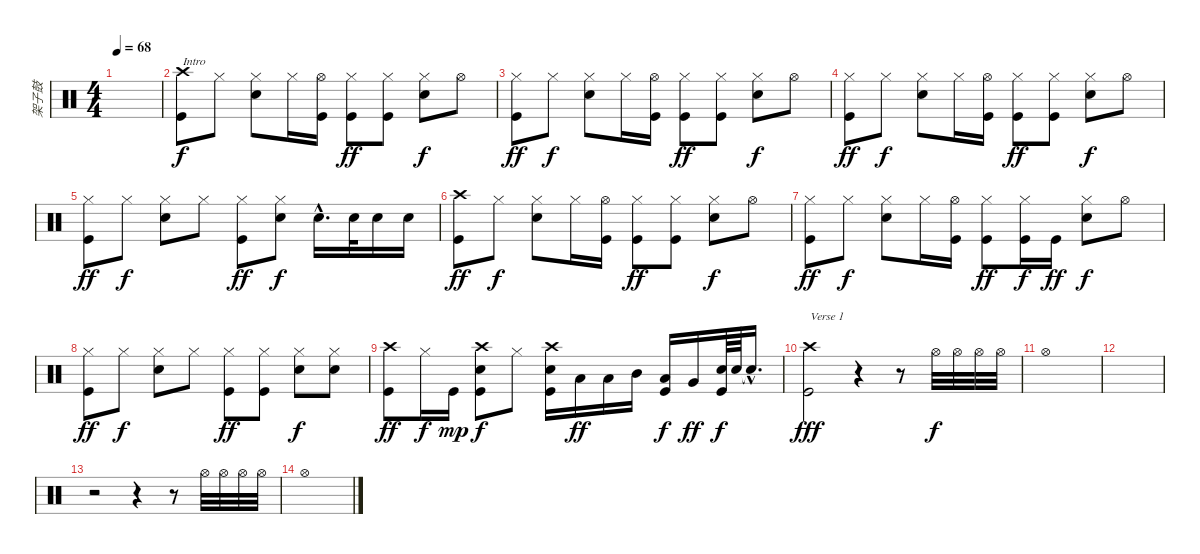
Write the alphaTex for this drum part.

\track ("架子鼓" "架子鼓") {instrument percussion}
\staff {score}
\articulation defaults
\ts (4 4)
\tempo 68
\clef neutral
\ks c
|
("Crash high (hit)" "Kick (hit)").8{txt "Intro"} "Hi-Hat (closed)".8{dy f} ("Hi-Hat (closed)" "Snare (hit) 2").8 "Hi-Hat (closed)".16 ("Hi-Hat (open)" "Kick (hit)").16 ("Hi-Hat (closed)" "Kick (hit)").8{dy ff} ("Hi-Hat (closed)" "Kick (hit)").8 ("Hi-Hat (closed)" "Snare (hit) 2").8{dy f} "Hi-Hat (open)".8 |
("Hi-Hat (closed)" "Kick (hit)").8{dy ff} "Hi-Hat (closed)".8{dy f} ("Hi-Hat (closed)" "Snare (hit) 2").8 "Hi-Hat (closed)".16 ("Hi-Hat (open)" "Kick (hit)").16 ("Hi-Hat (closed)" "Kick (hit)").8{dy ff} ("Hi-Hat (closed)" "Kick (hit)").8 ("Hi-Hat (closed)" "Snare (hit) 2").8{dy f} "Hi-Hat (open)".8 |
("Hi-Hat (closed)" "Kick (hit)").8{dy ff} "Hi-Hat (closed)".8{dy f} ("Hi-Hat (closed)" "Snare (hit) 2").8 "Hi-Hat (closed)".16 ("Hi-Hat (open)" "Kick (hit)").16 ("Hi-Hat (closed)" "Kick (hit)").8{dy ff} ("Hi-Hat (closed)" "Kick (hit)").8 ("Hi-Hat (closed)" "Snare (hit) 2").8{dy f} "Hi-Hat (open)".8 |
("Hi-Hat (closed)" "Kick (hit)").8{dy ff} "Hi-Hat (closed)".8{dy f} ("Hi-Hat (closed)" "Snare (hit) 2").8 "Hi-Hat (closed)".8 ("Hi-Hat (closed)" "Kick (hit)").8{dy ff} ("Hi-Hat (closed)" "Snare (hit) 2").8{dy f} "Snare (hit) 2"{hac}.16{d} "Snare (hit) 2".32 "Snare (hit) 2".16 "Snare (hit) 2".16 |
("Crash high (hit)" "Kick (hit)").8{dy ff} "Hi-Hat (closed)".8{dy f} ("Hi-Hat (closed)" "Snare (hit) 2").8 "Hi-Hat (closed)".16 ("Hi-Hat (open)" "Kick (hit)").16 ("Hi-Hat (closed)" "Kick (hit)").8{dy ff} ("Hi-Hat (closed)" "Kick (hit)").8 ("Hi-Hat (closed)" "Snare (hit) 2").8{dy f} "Hi-Hat (open)".8 |
("Hi-Hat (closed)" "Kick (hit)").8{dy ff} "Hi-Hat (closed)".8{dy f} ("Hi-Hat (closed)" "Snare (hit) 2").8 "Hi-Hat (closed)".16 ("Hi-Hat (open)" "Kick (hit)").16 ("Hi-Hat (closed)" "Kick (hit)").8{dy ff} ("Hi-Hat (closed)" "Kick (hit)").16{dy f} "Kick (hit)".16{dy ff} ("Hi-Hat (closed)" "Snare (hit) 2").8{dy f} "Hi-Hat (open)".8 |
("Hi-Hat (closed)" "Kick (hit)").8{dy ff} "Hi-Hat (closed)".8{dy f} ("Hi-Hat (closed)" "Snare (hit) 2").8 "Hi-Hat (closed)".8 ("Hi-Hat (closed)" "Kick (hit)").8{dy ff} ("Hi-Hat (closed)" "Kick (hit)").8 ("Hi-Hat (closed)" "Snare (hit) 2").8{dy f} ("Hi-Hat (closed)" "Snare (hit) 2").8 |
("Crash high (hit)" "Kick (hit)").8{dy ff} "Hi-Hat (closed)".16{dy f} "Kick (hit)".16{dy mp} ("Crash high (hit)" "Snare (hit) 2" "Kick (hit)").8{dy f} "Hi-Hat (closed)".8 ("Crash high (hit)" "Snare (hit) 2" "Kick (hit)").16 "Low Floor Tom (hit)".16{dy ff} "Low Tom (hit)".16 "Mid Tom (hit)".16 ("Low Tom (hit)" "Kick (hit)").16{dy f} "Very Low Tom (hit)".16{dy ff} ("Snare (hit) 2" "Kick (hit)").64{dy f} "Snare (hit) 2".64 "Snare (hit)"{hac t}.16{d} |
("Crash high (hit)" "Kick (hit)").2{txt "Verse 1" dy fff} r.4 r.8 "Hi-Hat (open)".32{dy f} "Hi-Hat (open)".32 "Hi-Hat (open)".32 "Hi-Hat (open)".32 |
"Hi-Hat (open)".1 |
|
r.2 r.4 r.8 "Hi-Hat (open)".32 "Hi-Hat (open)".32 "Hi-Hat (open)".32 "Hi-Hat (open)".32 |
"Hi-Hat (open)".1
